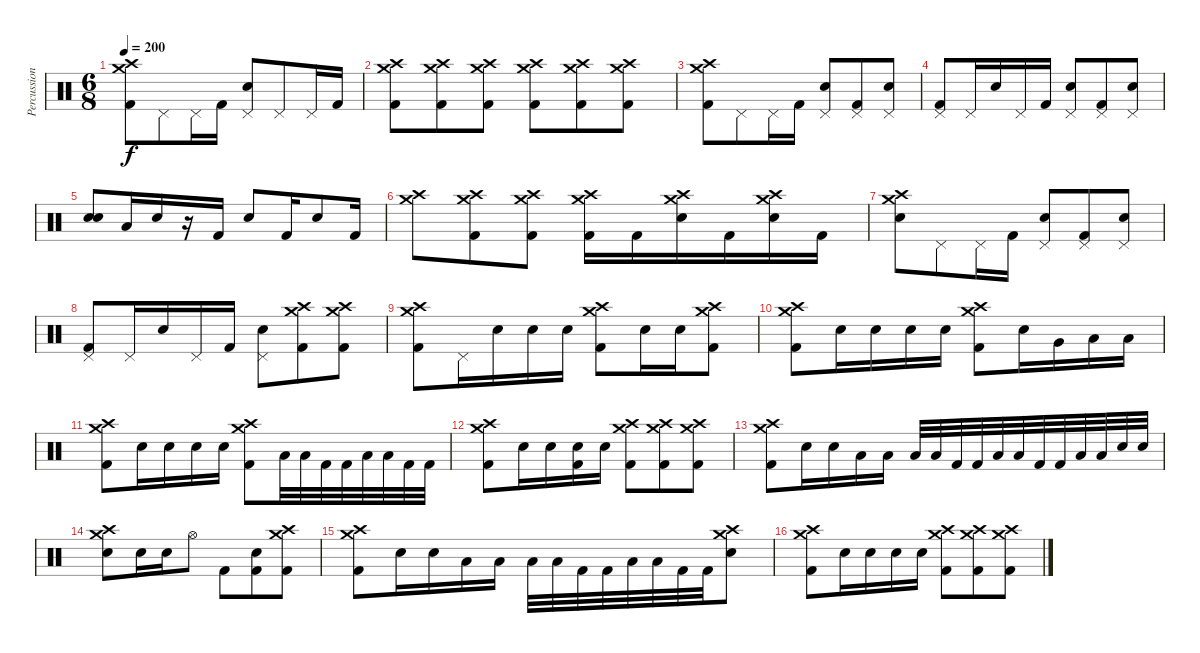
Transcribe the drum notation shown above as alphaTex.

\track ("Percussion" "Percussion") {instrument percussion}
\staff {score}
\articulation defaults
\ts (6 8)
\tempo 200
\clef neutral
\ks c
("Kick (hit) 2" "Crash high (hit)" "Crash medium (hit)").8{dy f} "Pedal Hi-Hat (hit)".8 "Pedal Hi-Hat (hit)".16 "Kick (hit) 2".16 ("Snare (hit) 2" "Pedal Hi-Hat (hit)").8 "Pedal Hi-Hat (hit)".8 "Pedal Hi-Hat (hit)".16 "Kick (hit) 2".16 |
("Kick (hit) 2" "Crash high (hit)" "Crash medium (hit)").8 ("Kick (hit) 2" "Crash high (hit)" "Crash medium (hit)").8 ("Kick (hit) 2" "Crash high (hit)" "Crash medium (hit)").8 ("Kick (hit) 2" "Crash high (hit)" "Crash medium (hit)").8 ("Kick (hit) 2" "Crash high (hit)" "Crash medium (hit)").8 ("Kick (hit) 2" "Crash high (hit)" "Crash medium (hit)").8 |
("Kick (hit) 2" "Crash high (hit)" "Crash medium (hit)").8 "Pedal Hi-Hat (hit)".8 "Pedal Hi-Hat (hit)".16 "Kick (hit) 2".16 ("Snare (hit) 2" "Pedal Hi-Hat (hit)").8 ("Kick (hit) 2" "Pedal Hi-Hat (hit)").8 ("Snare (hit) 2" "Pedal Hi-Hat (hit)").8 |
("Kick (hit) 2" "Pedal Hi-Hat (hit)").8 "Pedal Hi-Hat (hit)".16 "Snare (hit) 2".16 "Pedal Hi-Hat (hit)".16 "Kick (hit) 2".16 ("Snare (hit) 2" "Pedal Hi-Hat (hit)").8 ("Kick (hit) 2" "Pedal Hi-Hat (hit)").8 ("Snare (hit) 2" "Pedal Hi-Hat (hit)").8 |
("Snare (hit) 2" "Electric Snare (hit)").8 "Low Floor Tom (hit)".16 "Snare (hit) 2".16 r.16 "Kick (hit) 2".16 "Snare (hit) 2".8 "Kick (hit) 2".16 "Snare (hit) 2".8 "Kick (hit) 2".16 |
("Crash high (hit)" "Crash medium (hit)").8 ("Kick (hit) 2" "Crash high (hit)" "Crash medium (hit)").8 ("Kick (hit) 2" "Crash high (hit)" "Crash medium (hit)").8 ("Kick (hit) 2" "Crash high (hit)" "Crash medium (hit)").16 "Kick (hit) 2".16 ("Snare (hit) 2" "Crash high (hit)" "Crash medium (hit)").16 "Kick (hit) 2".16 ("Snare (hit) 2" "Crash high (hit)" "Crash medium (hit)").16 "Kick (hit) 2".16 |
("Snare (hit) 2" "Crash high (hit)" "Crash medium (hit)").8 "Pedal Hi-Hat (hit)".8 "Pedal Hi-Hat (hit)".16 "Kick (hit) 2".16 ("Snare (hit) 2" "Pedal Hi-Hat (hit)").8 ("Kick (hit) 2" "Pedal Hi-Hat (hit)").8 ("Snare (hit) 2" "Pedal Hi-Hat (hit)").8 |
("Kick (hit) 2" "Pedal Hi-Hat (hit)").8 "Pedal Hi-Hat (hit)".16 "Snare (hit) 2".16 "Pedal Hi-Hat (hit)".16 "Kick (hit) 2".16 ("Snare (hit) 2" "Pedal Hi-Hat (hit)").8 ("Kick (hit) 2" "Crash high (hit)" "Crash medium (hit)").8 ("Kick (hit) 2" "Crash high (hit)" "Crash medium (hit)").8 |
("Kick (hit) 2" "Crash high (hit)" "Crash medium (hit)").8 "Pedal Hi-Hat (hit)".16 "Snare (hit) 2".16 "Snare (hit) 2".16 "Snare (hit) 2".16 ("Kick (hit) 2" "Crash high (hit)" "Crash medium (hit)").8 "Snare (hit) 2".16 "Snare (hit) 2".16 ("Kick (hit) 2" "Crash high (hit)" "Crash medium (hit)").8 |
("Kick (hit) 2" "Crash high (hit)" "Crash medium (hit)").8 "Snare (hit) 2".16 "Snare (hit) 2".16 "Snare (hit) 2".16 "Snare (hit) 2".16 ("Kick (hit) 2" "Crash high (hit)" "Crash medium (hit)").8 "Snare (hit) 2".16 "Very Low Tom (hit)".16 "Low Floor Tom (hit)".16 "Low Floor Tom (hit)".16 |
("Kick (hit) 2" "Crash high (hit)" "Crash medium (hit)").8 "Snare (hit) 2".16 "Snare (hit) 2".16 "Snare (hit) 2".16 "Snare (hit) 2".16 ("Kick (hit) 2" "Crash high (hit)" "Crash medium (hit)").8 "Low Floor Tom (hit)".32 "Low Floor Tom (hit)".32 "Kick (hit) 2".32 "Kick (hit) 2".32 "Low Floor Tom (hit)".32 "Low Floor Tom (hit)".32 "Kick (hit) 2".32 "Kick (hit) 2".32 |
("Kick (hit) 2" "Crash high (hit)" "Crash medium (hit)").8 "Snare (hit) 2".16 "Snare (hit) 2".16 ("Kick (hit) 2" "Snare (hit) 2").16 "Snare (hit) 2".16 ("Kick (hit) 2" "Crash high (hit)" "Crash medium (hit)").8 ("Kick (hit) 2" "Crash high (hit)" "Crash medium (hit)").8 ("Kick (hit) 2" "Crash high (hit)" "Crash medium (hit)").8 |
("Kick (hit) 2" "Crash high (hit)" "Crash medium (hit)").8 "Snare (hit) 2".16 "Snare (hit) 2".16 "Low Floor Tom (hit)".16 "Low Floor Tom (hit)".16 "Low Floor Tom (hit)".32 "Low Floor Tom (hit)".32 "Kick (hit) 2".32 "Kick (hit) 2".32 "Low Floor Tom (hit)".32 "Low Floor Tom (hit)".32 "Kick (hit) 2".32 "Kick (hit) 2".32 "Low Floor Tom (hit)".32 "Low Floor Tom (hit)".32 "Snare (hit) 2".32 "Snare (hit) 2".32 |
("Snare (hit) 2" "Crash high (hit)" "Crash medium (hit)").8 "Snare (hit) 2".16 "Snare (hit) 2".16 "Hi-Hat (open)".8 "Kick (hit) 2".8 ("Kick (hit) 2" "Snare (hit) 2").8 ("Kick (hit) 2" "Crash high (hit)" "Crash medium (hit)").8 |
("Kick (hit) 2" "Crash high (hit)" "Crash medium (hit)").8 "Snare (hit) 2".16 "Snare (hit) 2".16 "Low Floor Tom (hit)".16 "Low Floor Tom (hit)".16 "Low Floor Tom (hit)".32 "Low Floor Tom (hit)".32 "Kick (hit) 2".32 "Kick (hit) 2".32 "Low Floor Tom (hit)".32 "Low Floor Tom (hit)".32 "Kick (hit) 2".32 "Kick (hit) 2".32 ("Snare (hit) 2" "Crash high (hit)" "Crash medium (hit)").8 |
("Kick (hit) 2" "Crash high (hit)" "Crash medium (hit)").8 "Snare (hit) 2".16 "Snare (hit) 2".16 "Snare (hit) 2".16 "Snare (hit) 2".16 ("Kick (hit) 2" "Crash high (hit)" "Crash medium (hit)").8 ("Kick (hit) 2" "Crash high (hit)" "Crash medium (hit)").8 ("Kick (hit) 2" "Crash high (hit)" "Crash medium (hit)").8
